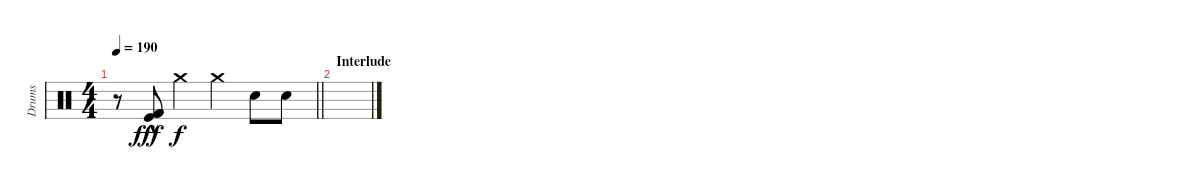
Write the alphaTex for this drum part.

\track ("Drums" "Drums") {instrument percussion}
\staff {score}
\articulation defaults
\ts (4 4)
\tempo 190
\clef neutral
\barLineRight lightlight
\ks c
r.8{dy f} ("Kick (hit) 2"{hac} "Kick (hit)"{hac} "Kick (hit) 2"{hac}).8{dy fff} "Crash medium (hit)".4{dy f} "Crash medium (hit)".4 "Snare (hit) 2".8 "Snare (hit) 2".8 |
\section ("" "Interlude")
